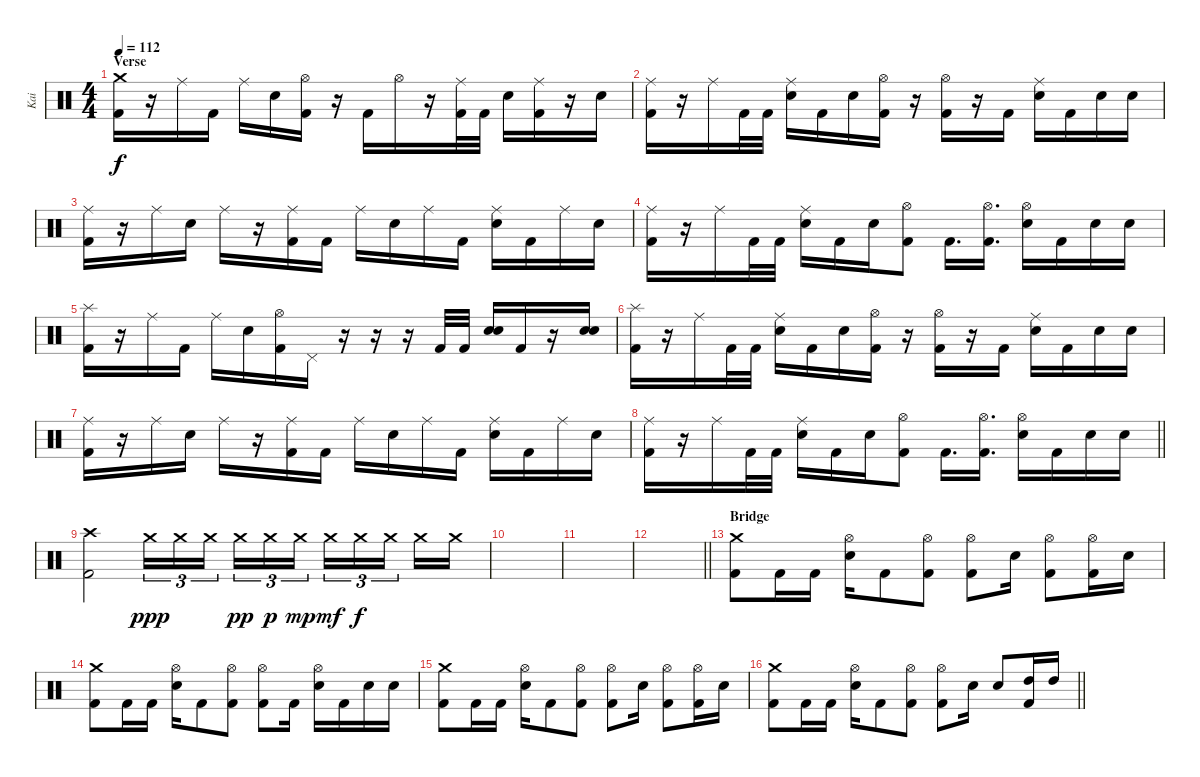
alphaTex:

\track ("Kai" "Kai") {mute instrument percussion}
\staff {score}
\articulation defaults
\ts (4 4)
\section ("" "Verse")
\tempo 112
\clef neutral
\ks c
("Crash medium (hit)" "Kick (hit) 2").16{dy f} r.16 "Ride (middle)".16 "Kick (hit) 2".16 "Ride (middle)".16 "Electric Snare (hit)".16 ("Hi-Hat (open)" "Kick (hit) 2").16 r.16 "Kick (hit) 2".16 "Hi-Hat (open)".16 r.16 ("Ride (middle)" "Kick (hit) 2").32 "Kick (hit) 2".32 "Electric Snare (hit)".16 ("Ride (middle)" "Kick (hit) 2").16 r.16 "Electric Snare (hit)".16 |
("Ride (middle)" "Kick (hit) 2").16 r.16 "Ride (middle)".16 "Kick (hit) 2".32 "Kick (hit) 2".32 ("Ride (middle)" "Electric Snare (hit)").16 "Kick (hit) 2".16 "Electric Snare (hit)".16 ("Hi-Hat (open)" "Kick (hit) 2").16 r.16 ("Hi-Hat (open)" "Kick (hit) 2").16 r.16 "Kick (hit) 2".16 ("Ride (middle)" "Electric Snare (hit)").16 "Kick (hit) 2".16 "Electric Snare (hit)".16 "Electric Snare (hit)".16 |
("Ride (middle)" "Kick (hit) 2").16 r.16 "Ride (middle)".16 "Electric Snare (hit)".16 "Ride (middle)".16 r.16 ("Ride (middle)" "Kick (hit) 2").16 "Kick (hit) 2".16 "Ride (middle)".16 "Electric Snare (hit)".16 "Ride (middle)".16 "Kick (hit) 2".16 ("Ride (middle)" "Electric Snare (hit)").16 "Kick (hit) 2".16 "Ride (middle)".16 "Electric Snare (hit)".16 |
("Ride (middle)" "Kick (hit) 2").16 r.16 "Ride (middle)".16 "Kick (hit) 2".32 "Kick (hit) 2".32 ("Ride (middle)" "Electric Snare (hit)").16 "Kick (hit) 2".16 "Electric Snare (hit)".16 ("Hi-Hat (open)" "Kick (hit) 2").8 "Kick (hit) 2".16{d} ("Hi-Hat (open)" "Kick (hit) 2").16{d} ("Hi-Hat (open)" "Electric Snare (hit)").16 "Kick (hit) 2".16 "Electric Snare (hit)".16 "Electric Snare (hit)".16 |
("Splash (hit)" "Kick (hit) 2").16 r.16 "Ride (middle)".16 "Kick (hit) 2".16 "Ride (middle)".16 "Electric Snare (hit)".16 ("Hi-Hat (open)" "Kick (hit) 2").16 "Pedal Hi-Hat (hit)".16 r.16 r.16 r.16 "Kick (hit) 2".32 "Kick (hit) 2".32 ("Electric Snare (hit)" "Electric Snare (hit)").16 "Kick (hit) 2".16 r.16 ("Electric Snare (hit)" "Electric Snare (hit)").16 |
("Splash (hit)" "Kick (hit) 2").16 r.16 "Ride (middle)".16 "Kick (hit) 2".32 "Kick (hit) 2".32 ("Ride (middle)" "Electric Snare (hit)").16 "Kick (hit) 2".16 "Electric Snare (hit)".16 ("Hi-Hat (open)" "Kick (hit) 2").16 r.16 ("Hi-Hat (open)" "Kick (hit) 2").16 r.16 "Kick (hit) 2".16 ("Ride (middle)" "Electric Snare (hit)").16 "Kick (hit) 2".16 "Electric Snare (hit)".16 "Electric Snare (hit)".16 |
("Ride (middle)" "Kick (hit) 2").16 r.16 "Ride (middle)".16 "Electric Snare (hit)".16 "Ride (middle)".16 r.16 ("Ride (middle)" "Kick (hit) 2").16 "Kick (hit) 2".16 "Ride (middle)".16 "Electric Snare (hit)".16 "Ride (middle)".16 "Kick (hit) 2".16 ("Ride (middle)" "Electric Snare (hit)").16 "Kick (hit) 2".16 "Ride (middle)".16 "Electric Snare (hit)".16 |
\barLineRight lightlight
("Ride (middle)" "Kick (hit) 2").16 r.16 "Ride (middle)".16 "Kick (hit) 2".32 "Kick (hit) 2".32 ("Ride (middle)" "Electric Snare (hit)").16 "Kick (hit) 2".16 "Electric Snare (hit)".16 ("Hi-Hat (open)" "Kick (hit) 2").8 "Kick (hit) 2".16{d} ("Hi-Hat (open)" "Kick (hit) 2").16{d} ("Hi-Hat (open)" "Electric Snare (hit)").16 "Kick (hit) 2".16 "Electric Snare (hit)".16 "Electric Snare (hit)".16 |
\section ("" "")
("Crash high (hit)" "Kick (hit) 2").2 "Crash medium (hit)".16{tu (3 2) dy ppp} "Crash medium (hit)".16{tu (3 2)} "Crash medium (hit)".16{tu (3 2) beam splitsecondary} "Crash medium (hit)".16{tu (3 2) dy pp} "Crash medium (hit)".16{tu (3 2) dy p} "Crash medium (hit)".16{tu (3 2) dy mp} "Crash medium (hit)".16{tu (3 2) dy mf} "Crash medium (hit)".16{tu (3 2) dy f} "Crash medium (hit)".16{tu (3 2) beam splitsecondary} "Crash medium (hit)".16 "Crash medium (hit)".16 |
|
|
\barLineRight lightlight
|
\section ("" "Bridge")
("Crash medium (hit)" "Kick (hit) 2").8 "Kick (hit) 2".16 "Kick (hit) 2".16 ("Hi-Hat (open)" "Electric Snare (hit)").16 "Kick (hit) 2".8 ("Hi-Hat (open)" "Kick (hit) 2").8 ("Hi-Hat (open)" "Kick (hit) 2").8 "Electric Snare (hit)".16 ("Hi-Hat (open)" "Kick (hit) 2").8 ("Hi-Hat (open)" "Kick (hit) 2").16 "Electric Snare (hit)".16 |
("Crash medium (hit)" "Kick (hit) 2").8 "Kick (hit) 2".16 "Kick (hit) 2".16 ("Hi-Hat (open)" "Electric Snare (hit)").16 "Kick (hit) 2".8 ("Hi-Hat (open)" "Kick (hit) 2").8 ("Hi-Hat (open)" "Kick (hit) 2").8 "Kick (hit) 2".16 ("Hi-Hat (open)" "Electric Snare (hit)").16 "Kick (hit) 2".16 "Electric Snare (hit)".16 "Electric Snare (hit)".16 |
("Crash medium (hit)" "Kick (hit) 2").8 "Kick (hit) 2".16 "Kick (hit) 2".16 ("Hi-Hat (open)" "Electric Snare (hit)").16 "Kick (hit) 2".8 ("Hi-Hat (open)" "Kick (hit) 2").8 ("Hi-Hat (open)" "Kick (hit) 2").8 "Electric Snare (hit)".16 ("Hi-Hat (open)" "Kick (hit) 2").8 ("Hi-Hat (open)" "Kick (hit) 2").16 "Electric Snare (hit)".16 |
\barLineRight lightlight
("Crash medium (hit)" "Kick (hit) 2").8 "Kick (hit) 2".16 "Kick (hit) 2".16 ("Hi-Hat (open)" "Electric Snare (hit)").16 "Kick (hit) 2".8 ("Hi-Hat (open)" "Kick (hit) 2").8 ("Hi-Hat (open)" "Kick (hit) 2").8 "Electric Snare (hit)".16 "Electric Snare (hit)".8 ("High Tom (hit)" "Kick (hit) 2").16 "High Tom (hit)".16
